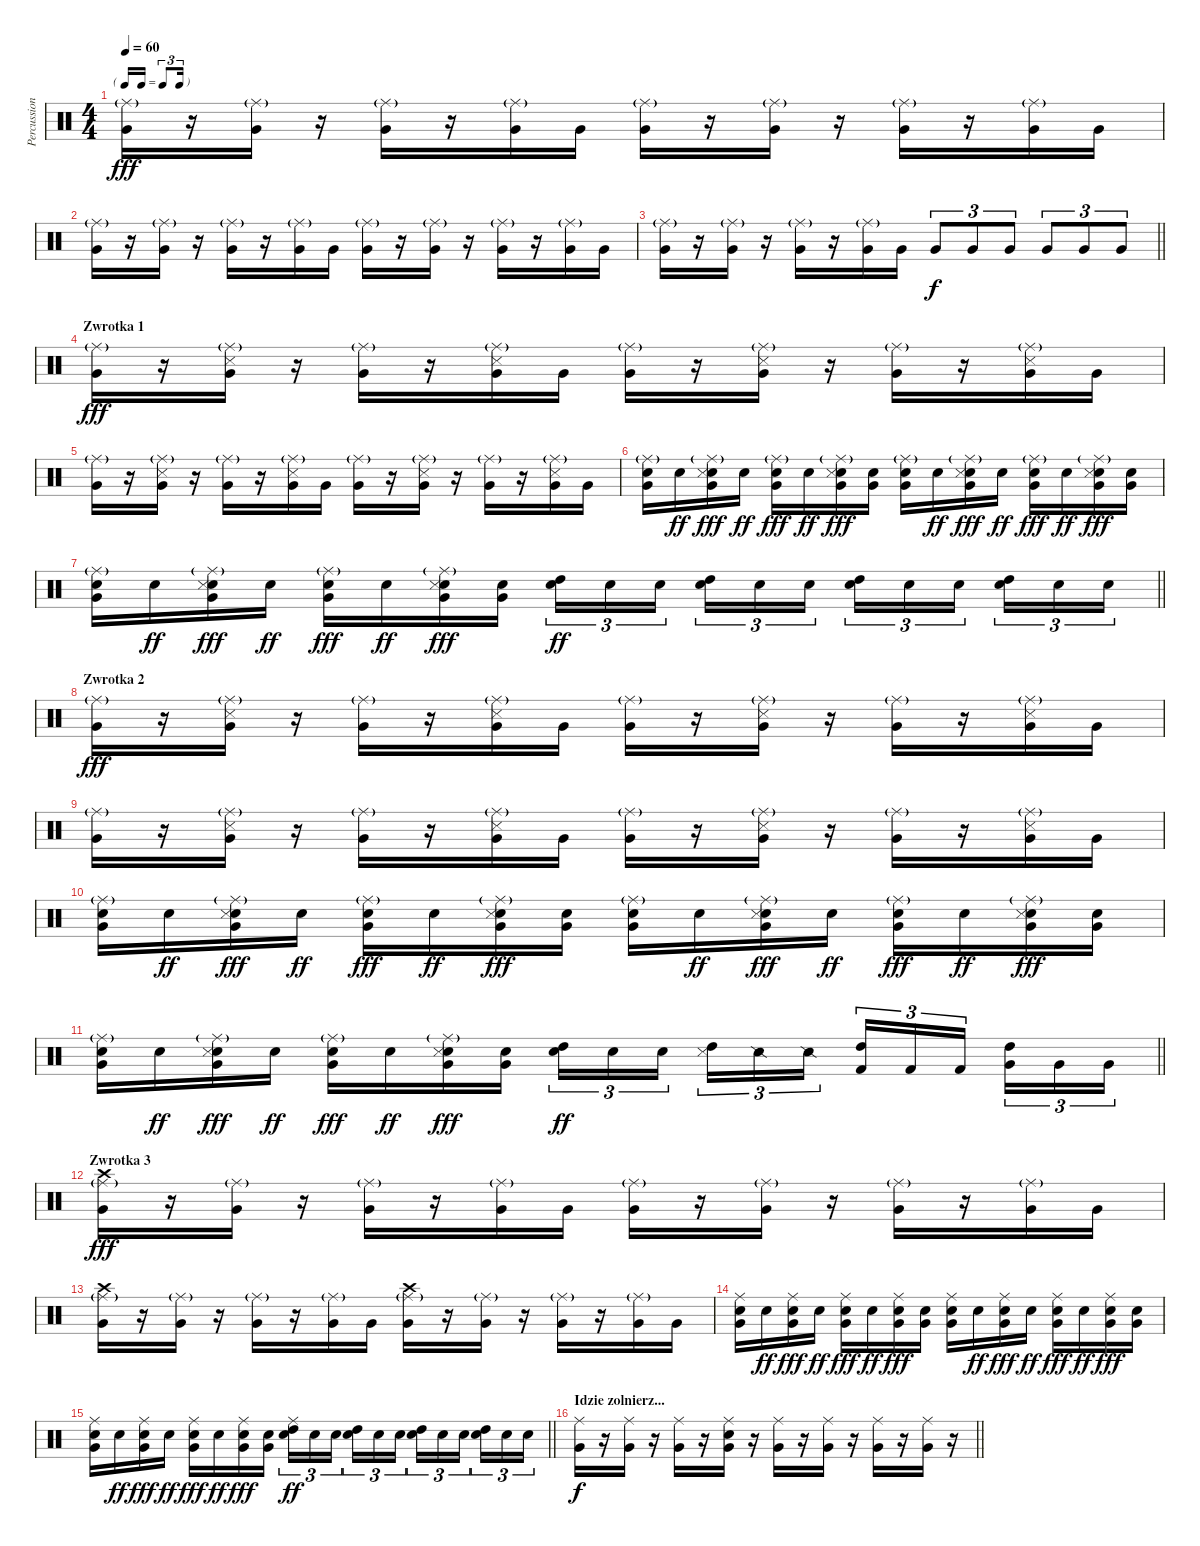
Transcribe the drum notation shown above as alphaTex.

\track ("Percussion" "Percussion") {instrument percussion}
\staff {score}
\articulation defaults
\ts (4 4)
\tf triplet16th
\tempo 60
\clef neutral
\ks c
("Ride (middle)"{g} "Very Low Tom (hit)").16{dy fff} r.16 ("Ride (middle)"{g} "Very Low Tom (hit)").16 r.16 ("Ride (middle)"{g} "Very Low Tom (hit)").16 r.16 ("Ride (middle)"{g} "Very Low Tom (hit)").16 "Very Low Tom (hit)".16 ("Ride (middle)"{g} "Very Low Tom (hit)").16 r.16 ("Ride (middle)"{g} "Very Low Tom (hit)").16 r.16 ("Ride (middle)"{g} "Very Low Tom (hit)").16 r.16 ("Ride (middle)"{g} "Very Low Tom (hit)").16 "Very Low Tom (hit)".16 |
("Ride (middle)"{g} "Very Low Tom (hit)").16 r.16 ("Ride (middle)"{g} "Very Low Tom (hit)").16 r.16 ("Ride (middle)"{g} "Very Low Tom (hit)").16 r.16 ("Ride (middle)"{g} "Very Low Tom (hit)").16 "Very Low Tom (hit)".16 ("Ride (middle)"{g} "Very Low Tom (hit)").16 r.16 ("Ride (middle)"{g} "Very Low Tom (hit)").16 r.16 ("Ride (middle)"{g} "Very Low Tom (hit)").16 r.16 ("Ride (middle)"{g} "Very Low Tom (hit)").16 "Very Low Tom (hit)".16 |
\barLineRight lightlight
("Ride (middle)"{g} "Very Low Tom (hit)").16 r.16 ("Ride (middle)"{g} "Very Low Tom (hit)").16 r.16 ("Ride (middle)"{g} "Very Low Tom (hit)").16 r.16 ("Ride (middle)"{g} "Very Low Tom (hit)").16 "Very Low Tom (hit)".16 "Very Low Tom (hit)".8{tu (3 2) dy f} "Very Low Tom (hit)".8{tu (3 2)} "Very Low Tom (hit)".8{tu (3 2)} "Very Low Tom (hit)".8{tu (3 2)} "Very Low Tom (hit)".8{tu (3 2)} "Very Low Tom (hit)".8{tu (3 2)} |
\section ("" "Zwrotka 1")
("Ride (middle)"{g} "Very Low Tom (hit)").16{dy fff} r.16 ("Ride (middle)"{g} "Metronome (hit)" "Very Low Tom (hit)").16 r.16 ("Ride (middle)"{g} "Very Low Tom (hit)").16 r.16 ("Ride (middle)"{g} "Metronome (hit)" "Very Low Tom (hit)").16 "Very Low Tom (hit)".16 ("Ride (middle)"{g} "Very Low Tom (hit)").16 r.16 ("Ride (middle)"{g} "Metronome (hit)" "Very Low Tom (hit)").16 r.16 ("Ride (middle)"{g} "Very Low Tom (hit)").16 r.16 ("Ride (middle)"{g} "Metronome (hit)" "Very Low Tom (hit)").16 "Very Low Tom (hit)".16 |
("Ride (middle)"{g} "Very Low Tom (hit)").16 r.16 ("Ride (middle)"{g} "Metronome (hit)" "Very Low Tom (hit)").16 r.16 ("Ride (middle)"{g} "Very Low Tom (hit)").16 r.16 ("Ride (middle)"{g} "Metronome (hit)" "Very Low Tom (hit)").16 "Very Low Tom (hit)".16 ("Ride (middle)"{g} "Very Low Tom (hit)").16 r.16 ("Ride (middle)"{g} "Metronome (hit)" "Very Low Tom (hit)").16 r.16 ("Ride (middle)"{g} "Very Low Tom (hit)").16 r.16 ("Ride (middle)"{g} "Metronome (hit)" "Very Low Tom (hit)").16 "Very Low Tom (hit)".16 |
("Hand Clap (hit)" "Ride (middle)"{g} "Very Low Tom (hit)").16 "Hand Clap (hit)".16{dy ff} ("Hand Clap (hit)" "Ride (middle)"{g} "Metronome (hit)" "Very Low Tom (hit)").16{dy fff} "Hand Clap (hit)".16{dy ff} ("Hand Clap (hit)" "Ride (middle)"{g} "Very Low Tom (hit)").16{dy fff} "Hand Clap (hit)".16{dy ff} ("Hand Clap (hit)" "Ride (middle)"{g} "Metronome (hit)" "Very Low Tom (hit)").16{dy fff} ("Hand Clap (hit)" "Very Low Tom (hit)").16 ("Hand Clap (hit)" "Ride (middle)"{g} "Very Low Tom (hit)").16 "Hand Clap (hit)".16{dy ff} ("Hand Clap (hit)" "Ride (middle)"{g} "Metronome (hit)" "Very Low Tom (hit)").16{dy fff} "Hand Clap (hit)".16{dy ff} ("Hand Clap (hit)" "Ride (middle)"{g} "Very Low Tom (hit)").16{dy fff} "Hand Clap (hit)".16{dy ff} ("Hand Clap (hit)" "Ride (middle)"{g} "Metronome (hit)" "Very Low Tom (hit)").16{dy fff} ("Hand Clap (hit)" "Very Low Tom (hit)").16 |
\barLineRight lightlight
("Hand Clap (hit)" "Ride (middle)"{g} "Very Low Tom (hit)").16 "Hand Clap (hit)".16{dy ff} ("Hand Clap (hit)" "Ride (middle)"{g} "Metronome (hit)" "Very Low Tom (hit)").16{dy fff} "Hand Clap (hit)".16{dy ff} ("Hand Clap (hit)" "Ride (middle)"{g} "Very Low Tom (hit)").16{dy fff} "Hand Clap (hit)".16{dy ff} ("Hand Clap (hit)" "Ride (middle)"{g} "Metronome (hit)" "Very Low Tom (hit)").16{dy fff} ("Hand Clap (hit)" "Very Low Tom (hit)").16 ("Hand Clap (hit)" "High Tom (hit)").16{tu (3 2) dy ff} "Hand Clap (hit)".16{tu (3 2)} "Hand Clap (hit)".16{tu (3 2) beam splitsecondary} ("Hand Clap (hit)" "High Tom (hit)").16{tu (3 2)} "Hand Clap (hit)".16{tu (3 2)} "Hand Clap (hit)".16{tu (3 2)} ("Hand Clap (hit)" "High Tom (hit)").16{tu (3 2)} "Hand Clap (hit)".16{tu (3 2)} "Hand Clap (hit)".16{tu (3 2) beam splitsecondary} ("Hand Clap (hit)" "High Tom (hit)").16{tu (3 2)} "Hand Clap (hit)".16{tu (3 2)} "Hand Clap (hit)".16{tu (3 2)} |
\section ("" "Zwrotka 2")
("Ride (middle)"{g} "Very Low Tom (hit)").16{dy fff} r.16 ("Ride (middle)"{g} "Metronome (hit)" "Very Low Tom (hit)").16 r.16 ("Ride (middle)"{g} "Very Low Tom (hit)").16 r.16 ("Ride (middle)"{g} "Metronome (hit)" "Very Low Tom (hit)").16 "Very Low Tom (hit)".16 ("Ride (middle)"{g} "Very Low Tom (hit)").16 r.16 ("Ride (middle)"{g} "Metronome (hit)" "Very Low Tom (hit)").16 r.16 ("Ride (middle)"{g} "Very Low Tom (hit)").16 r.16 ("Ride (middle)"{g} "Metronome (hit)" "Very Low Tom (hit)").16 "Very Low Tom (hit)".16 |
("Ride (middle)"{g} "Very Low Tom (hit)").16 r.16 ("Ride (middle)"{g} "Metronome (hit)" "Very Low Tom (hit)").16 r.16 ("Ride (middle)"{g} "Very Low Tom (hit)").16 r.16 ("Ride (middle)"{g} "Metronome (hit)" "Very Low Tom (hit)").16 "Very Low Tom (hit)".16 ("Ride (middle)"{g} "Very Low Tom (hit)").16 r.16 ("Ride (middle)"{g} "Metronome (hit)" "Very Low Tom (hit)").16 r.16 ("Ride (middle)"{g} "Very Low Tom (hit)").16 r.16 ("Ride (middle)"{g} "Metronome (hit)" "Very Low Tom (hit)").16 "Very Low Tom (hit)".16 |
("Hand Clap (hit)" "Ride (middle)"{g} "Very Low Tom (hit)").16 "Hand Clap (hit)".16{dy ff} ("Hand Clap (hit)" "Ride (middle)"{g} "Metronome (hit)" "Very Low Tom (hit)").16{dy fff} "Hand Clap (hit)".16{dy ff} ("Hand Clap (hit)" "Ride (middle)"{g} "Very Low Tom (hit)").16{dy fff} "Hand Clap (hit)".16{dy ff} ("Hand Clap (hit)" "Ride (middle)"{g} "Metronome (hit)" "Very Low Tom (hit)").16{dy fff} ("Hand Clap (hit)" "Very Low Tom (hit)").16 ("Hand Clap (hit)" "Ride (middle)"{g} "Very Low Tom (hit)").16 "Hand Clap (hit)".16{dy ff} ("Hand Clap (hit)" "Ride (middle)"{g} "Metronome (hit)" "Very Low Tom (hit)").16{dy fff} "Hand Clap (hit)".16{dy ff} ("Hand Clap (hit)" "Ride (middle)"{g} "Very Low Tom (hit)").16{dy fff} "Hand Clap (hit)".16{dy ff} ("Hand Clap (hit)" "Ride (middle)"{g} "Metronome (hit)" "Very Low Tom (hit)").16{dy fff} ("Hand Clap (hit)" "Very Low Tom (hit)").16 |
\barLineRight lightlight
("Hand Clap (hit)" "Ride (middle)"{g} "Very Low Tom (hit)").16 "Hand Clap (hit)".16{dy ff} ("Hand Clap (hit)" "Ride (middle)"{g} "Metronome (hit)" "Very Low Tom (hit)").16{dy fff} "Hand Clap (hit)".16{dy ff} ("Hand Clap (hit)" "Ride (middle)"{g} "Very Low Tom (hit)").16{dy fff} "Hand Clap (hit)".16{dy ff} ("Hand Clap (hit)" "Ride (middle)"{g} "Metronome (hit)" "Very Low Tom (hit)").16{dy fff} ("Hand Clap (hit)" "Very Low Tom (hit)").16 ("Snare (hit) 2" "High Tom (hit)").16{tu (3 2) dy ff} "Hand Clap (hit)".16{tu (3 2)} "Hand Clap (hit)".16{tu (3 2) beam splitsecondary} ("Snare (side stick) 3" "High Tom (hit)").16{tu (3 2)} "Snare (side stick) 2".16{tu (3 2)} "Snare (side stick) 2".16{tu (3 2)} ("Kick (hit) 2" "High Tom (hit)").16{tu (3 2)} "Kick (hit) 2".16{tu (3 2)} "Kick (hit) 2".16{tu (3 2) beam splitsecondary} ("Very Low Tom (hit)" "High Tom (hit)").16{tu (3 2)} "Very Low Tom (hit)".16{tu (3 2)} "Very Low Tom (hit)".16{tu (3 2)} |
\section ("" "Zwrotka 3")
("Crash high (hit)" "Ride (middle)"{g} "Very Low Tom (hit)").16{dy fff} r.16 ("Ride (middle)"{g} "Very Low Tom (hit)").16 r.16 ("Ride (middle)"{g} "Very Low Tom (hit)").16 r.16 ("Ride (middle)"{g} "Very Low Tom (hit)").16 "Very Low Tom (hit)".16 ("Ride (middle)"{g} "Very Low Tom (hit)").16 r.16 ("Ride (middle)"{g} "Very Low Tom (hit)").16 r.16 ("Ride (middle)"{g} "Very Low Tom (hit)").16 r.16 ("Ride (middle)"{g} "Very Low Tom (hit)").16 "Very Low Tom (hit)".16 |
("Crash high (hit)" "Ride (middle)"{g} "Very Low Tom (hit)").16 r.16 ("Ride (middle)"{g} "Very Low Tom (hit)").16 r.16 ("Ride (middle)"{g} "Very Low Tom (hit)").16 r.16 ("Ride (middle)"{g} "Very Low Tom (hit)").16 "Very Low Tom (hit)".16 ("Crash high (hit)" "Ride (middle)"{g} "Very Low Tom (hit)").16 r.16 ("Ride (middle)"{g} "Very Low Tom (hit)").16 r.16 ("Ride (middle)"{g} "Very Low Tom (hit)").16 r.16 ("Ride (middle)"{g} "Very Low Tom (hit)").16 "Very Low Tom (hit)".16 |
("Hand Clap (hit)" "Ride (middle)" "Very Low Tom (hit)").16 "Hand Clap (hit)".16{dy ff} ("Hand Clap (hit)" "Ride (middle)" "Very Low Tom (hit)").16{dy fff} "Hand Clap (hit)".16{dy ff} ("Hand Clap (hit)" "Ride (middle)" "Very Low Tom (hit)").16{dy fff} "Hand Clap (hit)".16{dy ff} ("Hand Clap (hit)" "Ride (middle)" "Very Low Tom (hit)").16{dy fff} ("Hand Clap (hit)" "Very Low Tom (hit)").16 ("Hand Clap (hit)" "Ride (middle)" "Very Low Tom (hit)").16 "Hand Clap (hit)".16{dy ff} ("Hand Clap (hit)" "Ride (middle)" "Very Low Tom (hit)").16{dy fff} "Hand Clap (hit)".16{dy ff} ("Hand Clap (hit)" "Ride (middle)" "Very Low Tom (hit)").16{dy fff} "Hand Clap (hit)".16{dy ff} ("Hand Clap (hit)" "Ride (middle)" "Very Low Tom (hit)").16{dy fff} ("Hand Clap (hit)" "Very Low Tom (hit)").16 |
\barLineRight lightlight
("Hand Clap (hit)" "Ride (middle)" "Very Low Tom (hit)").16 "Hand Clap (hit)".16{dy ff} ("Hand Clap (hit)" "Ride (middle)" "Very Low Tom (hit)").16{dy fff} "Hand Clap (hit)".16{dy ff} ("Hand Clap (hit)" "Ride (middle)" "Very Low Tom (hit)").16{dy fff} "Hand Clap (hit)".16{dy ff} ("Hand Clap (hit)" "Ride (middle)" "Very Low Tom (hit)").16{dy fff} ("Hand Clap (hit)" "Very Low Tom (hit)").16 ("Hand Clap (hit)" "Ride (middle)" "High Tom (hit)").16{tu (3 2) dy ff} "Hand Clap (hit)".16{tu (3 2)} "Hand Clap (hit)".16{tu (3 2) beam splitsecondary} ("Hand Clap (hit)" "High Tom (hit)").16{tu (3 2)} "Hand Clap (hit)".16{tu (3 2)} "Hand Clap (hit)".16{tu (3 2)} ("Hand Clap (hit)" "High Tom (hit)").16{tu (3 2)} "Hand Clap (hit)".16{tu (3 2)} "Hand Clap (hit)".16{tu (3 2) beam splitsecondary} ("Hand Clap (hit)" "High Tom (hit)").16{tu (3 2)} "Hand Clap (hit)".16{tu (3 2)} "Hand Clap (hit)".16{tu (3 2)} |
\section ("" "Idzie zolnierz...")
\barLineRight lightlight
("Ride (middle)" "Very Low Tom (hit)").16{dy f} r.16 ("Ride (middle)" "Very Low Tom (hit)").16 r.16 ("Ride (middle)" "Very Low Tom (hit)").16 r.16 ("Ride (middle)" "Snare (hit) 2" "Very Low Tom (hit)").16 r.16 ("Ride (middle)" "Very Low Tom (hit)").16 r.16 ("Ride (middle)" "Very Low Tom (hit)").16 r.16 ("Ride (middle)" "Very Low Tom (hit)").16 r.16 ("Ride (middle)" "Very Low Tom (hit)").16 r.16
